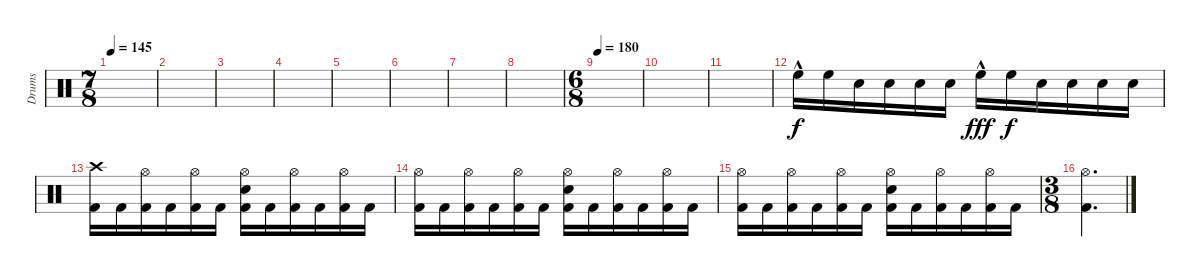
\track ("Drums" "Drums") {instrument percussion}
\staff {score}
\articulation defaults
\ts (7 8)
\tempo 145
\clef neutral
\ks c
|
|
|
|
|
|
|
|
\ts (6 8)
\tempo 180
|
|
|
"High Floor Tom (hit)"{hac}.16 "High Floor Tom (hit)".16{dy f} "Electric Snare (hit)".16 "Electric Snare (hit)".16 "Electric Snare (hit)".16 "Electric Snare (hit)".16 "High Floor Tom (hit)"{hac}.16{dy fff} "High Floor Tom (hit)".16{dy f} "Electric Snare (hit)".16 "Electric Snare (hit)".16 "Electric Snare (hit)".16 "Electric Snare (hit)".16 |
("Kick (hit) 2" "Crash high (hit)").16 "Kick (hit) 2".16 ("Kick (hit) 2" "Hi-Hat (open)").16 "Kick (hit) 2".16 ("Kick (hit) 2" "Hi-Hat (open)").16 "Kick (hit) 2".16 ("Kick (hit) 2" "Electric Snare (hit)" "Hi-Hat (open)").16 "Kick (hit) 2".16 ("Kick (hit) 2" "Hi-Hat (open)").16 "Kick (hit) 2".16 ("Kick (hit) 2" "Hi-Hat (open)").16 "Kick (hit) 2".16 |
("Kick (hit) 2" "Hi-Hat (open)").16 "Kick (hit) 2".16 ("Kick (hit) 2" "Hi-Hat (open)").16 "Kick (hit) 2".16 ("Kick (hit) 2" "Hi-Hat (open)").16 "Kick (hit) 2".16 ("Kick (hit) 2" "Electric Snare (hit)" "Hi-Hat (open)").16 "Kick (hit) 2".16 ("Kick (hit) 2" "Hi-Hat (open)").16 "Kick (hit) 2".16 ("Kick (hit) 2" "Hi-Hat (open)").16 "Kick (hit) 2".16 |
("Kick (hit) 2" "Hi-Hat (open)").16 "Kick (hit) 2".16 ("Kick (hit) 2" "Hi-Hat (open)").16 "Kick (hit) 2".16 ("Kick (hit) 2" "Hi-Hat (open)").16 "Kick (hit) 2".16 ("Kick (hit) 2" "Electric Snare (hit)" "Hi-Hat (open)").16 "Kick (hit) 2".16 ("Kick (hit) 2" "Hi-Hat (open)").16 "Kick (hit) 2".16 ("Kick (hit) 2" "Hi-Hat (open)").16 "Kick (hit) 2".16 |
\ts (3 8)
("Kick (hit) 2" "Hi-Hat (open)").4{d}
